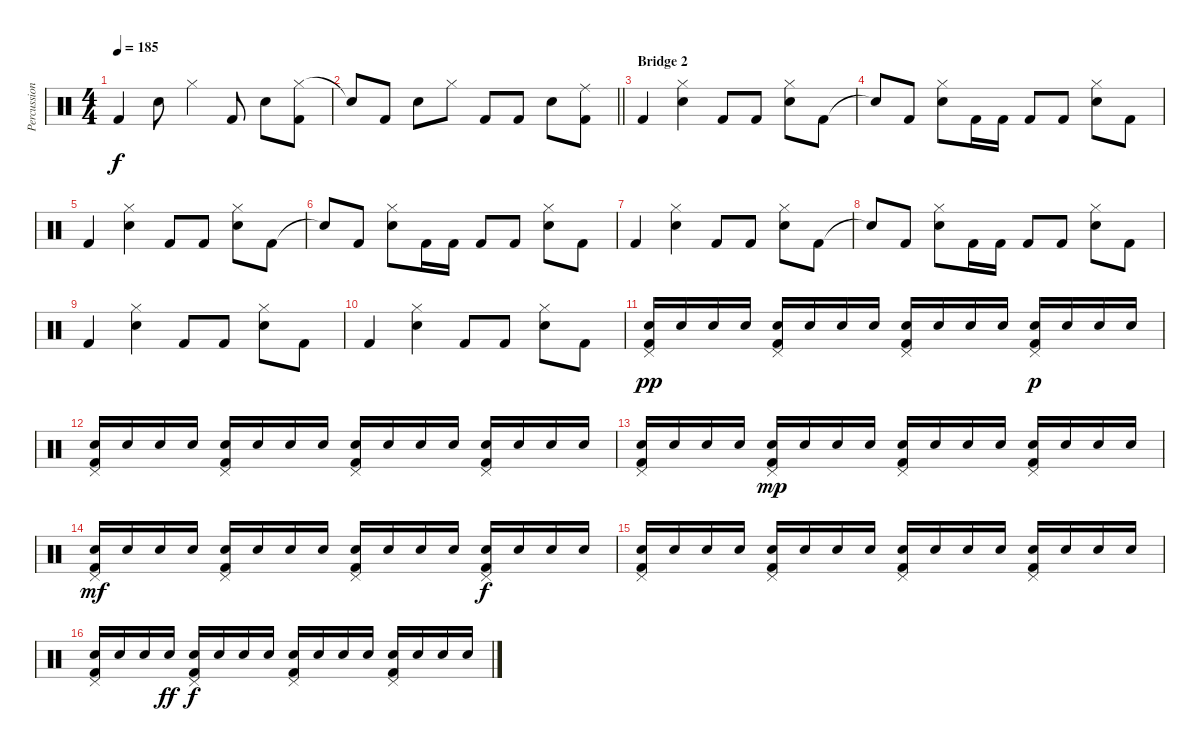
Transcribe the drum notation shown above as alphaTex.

\track ("Percussion" "Percussion") {instrument percussion}
\staff {score}
\articulation defaults
\ts (4 4)
\tempo 185
\clef neutral
\ks c "Kick (hit) 2".4{dy f} "Snare (hit) 2".8 "Hi-Hat (closed)".4 "Kick (hit) 2".8 "Snare (hit) 2".8
("Hi-Hat (closed)" "Kick (hit) 2").8 |
\barLineRight lightlight "Snare (hit)"{t}.8 "Kick (hit) 2".8 "Snare (hit) 2".8 "Hi-Hat (closed)".8 "Kick (hit) 2".8 "Kick (hit) 2".8 "Snare (hit) 2".8
("Ride (middle)" "Kick (hit) 2").8 |
\section ("" "Bridge 2")
"Kick (hit) 2".4 ("Hi-Hat (closed)" "Snare (hit) 2").4 "Kick (hit) 2".8 "Kick (hit) 2".8 ("Hi-Hat (closed)" "Snare (hit) 2").8 "Kick (hit) 2".8 |
"Snare (hit)"{t}.8 "Kick (hit) 2".8 ("Hi-Hat (closed)" "Snare (hit) 2").8 "Kick (hit) 2".16 "Kick (hit) 2".16 "Kick (hit) 2".8 "Kick (hit) 2".8 ("Hi-Hat (closed)" "Snare (hit) 2").8 "Kick (hit) 2".8 |
"Kick (hit) 2".4 ("Hi-Hat (closed)" "Snare (hit) 2").4 "Kick (hit) 2".8 "Kick (hit) 2".8 ("Hi-Hat (closed)" "Snare (hit) 2").8 "Kick (hit) 2".8 |
"Snare (hit)"{t}.8 "Kick (hit) 2".8 ("Hi-Hat (closed)" "Snare (hit) 2").8 "Kick (hit) 2".16 "Kick (hit) 2".16 "Kick (hit) 2".8 "Kick (hit) 2".8 ("Hi-Hat (closed)" "Snare (hit) 2").8 "Kick (hit) 2".8 |
"Kick (hit) 2".4 ("Hi-Hat (closed)" "Snare (hit) 2").4 "Kick (hit) 2".8 "Kick (hit) 2".8 ("Hi-Hat (closed)" "Snare (hit) 2").8 "Kick (hit) 2".8 |
"Snare (hit)"{t}.8 "Kick (hit) 2".8 ("Hi-Hat (closed)" "Snare (hit) 2").8 "Kick (hit) 2".16 "Kick (hit) 2".16 "Kick (hit) 2".8 "Kick (hit) 2".8 ("Hi-Hat (closed)" "Snare (hit) 2").8 "Kick (hit) 2".8 |
"Kick (hit) 2".4 ("Hi-Hat (closed)" "Snare (hit) 2").4 "Kick (hit) 2".8 "Kick (hit) 2".8 ("Hi-Hat (closed)" "Snare (hit) 2").8 "Kick (hit) 2".8 |
"Kick (hit) 2".4 ("Hi-Hat (closed)" "Snare (hit) 2").4 "Kick (hit) 2".8 "Kick (hit) 2".8 ("Hi-Hat (closed)" "Snare (hit) 2").8 "Kick (hit) 2".8 |
("Pedal Hi-Hat (hit)" "Snare (hit) 2" "Kick (hit) 2").16{dy pp} "Snare (hit) 2".16 "Snare (hit) 2".16 "Snare (hit) 2".16 ("Pedal Hi-Hat (hit)" "Snare (hit) 2" "Kick (hit) 2").16 "Snare (hit) 2".16 "Snare (hit) 2".16 "Snare (hit) 2".16 ("Pedal Hi-Hat (hit)" "Snare (hit) 2" "Kick (hit) 2").16 "Snare (hit) 2".16 "Snare (hit) 2".16 "Snare (hit) 2".16 ("Pedal Hi-Hat (hit)" "Snare (hit) 2" "Kick (hit) 2").16{dy p} "Snare (hit) 2".16 "Snare (hit) 2".16 "Snare (hit) 2".16 |
("Pedal Hi-Hat (hit)" "Snare (hit) 2" "Kick (hit) 2").16 "Snare (hit) 2".16 "Snare (hit) 2".16 "Snare (hit) 2".16 ("Pedal Hi-Hat (hit)" "Snare (hit) 2" "Kick (hit) 2").16 "Snare (hit) 2".16 "Snare (hit) 2".16 "Snare (hit) 2".16 ("Pedal Hi-Hat (hit)" "Snare (hit) 2" "Kick (hit) 2").16 "Snare (hit) 2".16 "Snare (hit) 2".16 "Snare (hit) 2".16 ("Pedal Hi-Hat (hit)" "Snare (hit) 2" "Kick (hit) 2").16 "Snare (hit) 2".16 "Snare (hit) 2".16 "Snare (hit) 2".16 |
("Pedal Hi-Hat (hit)" "Snare (hit) 2" "Kick (hit) 2").16 "Snare (hit) 2".16 "Snare (hit) 2".16 "Snare (hit) 2".16 ("Pedal Hi-Hat (hit)" "Snare (hit) 2" "Kick (hit) 2").16{dy mp} "Snare (hit) 2".16 "Snare (hit) 2".16 "Snare (hit) 2".16 ("Pedal Hi-Hat (hit)" "Snare (hit) 2" "Kick (hit) 2").16 "Snare (hit) 2".16 "Snare (hit) 2".16 "Snare (hit) 2".16 ("Pedal Hi-Hat (hit)" "Snare (hit) 2" "Kick (hit) 2").16 "Snare (hit) 2".16 "Snare (hit) 2".16 "Snare (hit) 2".16 |
("Pedal Hi-Hat (hit)" "Snare (hit) 2" "Kick (hit) 2").16{dy mf} "Snare (hit) 2".16 "Snare (hit) 2".16 "Snare (hit) 2".16 ("Pedal Hi-Hat (hit)" "Snare (hit) 2" "Kick (hit) 2").16 "Snare (hit) 2".16 "Snare (hit) 2".16 "Snare (hit) 2".16 ("Pedal Hi-Hat (hit)" "Snare (hit) 2" "Kick (hit) 2").16 "Snare (hit) 2".16 "Snare (hit) 2".16 "Snare (hit) 2".16 ("Pedal Hi-Hat (hit)" "Snare (hit) 2" "Kick (hit) 2").16{dy f} "Snare (hit) 2".16 "Snare (hit) 2".16 "Snare (hit) 2".16 |
("Pedal Hi-Hat (hit)" "Snare (hit) 2" "Kick (hit) 2").16 "Snare (hit) 2".16 "Snare (hit) 2".16 "Snare (hit) 2".16 ("Pedal Hi-Hat (hit)" "Snare (hit) 2" "Kick (hit) 2").16 "Snare (hit) 2".16 "Snare (hit) 2".16 "Snare (hit) 2".16 ("Pedal Hi-Hat (hit)" "Snare (hit) 2" "Kick (hit) 2").16 "Snare (hit) 2".16 "Snare (hit) 2".16 "Snare (hit) 2".16 ("Pedal Hi-Hat (hit)" "Snare (hit) 2" "Kick (hit) 2").16 "Snare (hit) 2".16 "Snare (hit) 2".16 "Snare (hit) 2".16 |
("Pedal Hi-Hat (hit)" "Snare (hit) 2" "Kick (hit) 2").16 "Snare (hit) 2".16 "Snare (hit) 2".16 "Snare (hit) 2".16{dy ff} ("Pedal Hi-Hat (hit)" "Snare (hit) 2" "Kick (hit) 2").16{dy f} "Snare (hit) 2".16 "Snare (hit) 2".16 "Snare (hit) 2".16 ("Pedal Hi-Hat (hit)" "Snare (hit) 2" "Kick (hit) 2").16 "Snare (hit) 2".16 "Snare (hit) 2".16 "Snare (hit) 2".16 ("Pedal Hi-Hat (hit)" "Snare (hit) 2" "Kick (hit) 2").16 "Snare (hit) 2".16 "Snare (hit) 2".16 "Snare (hit) 2".16
